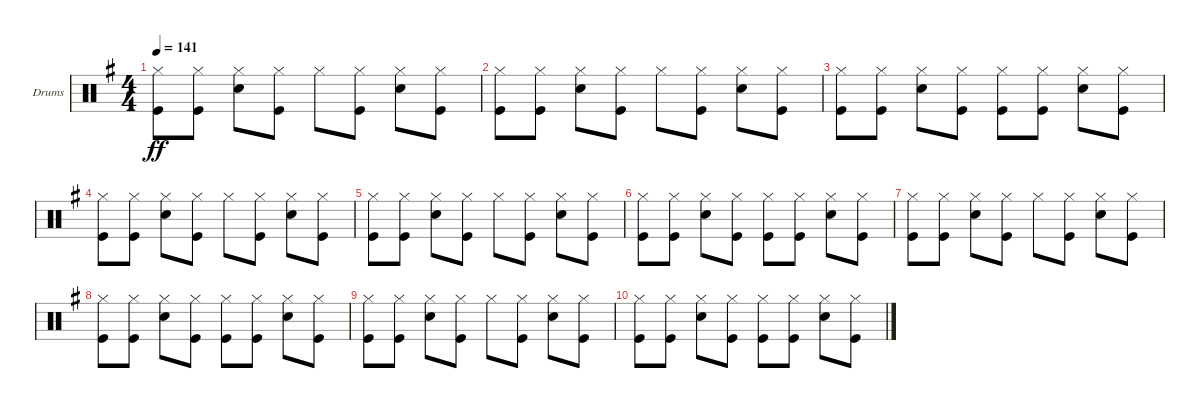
\defaultSystemsLayout 4
\bracketExtendMode groupsimilarinstruments
\firstSystemTrackNameOrientation horizontal
\otherSystemsTrackNameOrientation horizontal
\track ("Drumkit" "Drums") {instrument percussion}
\staff {score}
\articulation defaults
\ts (4 4)
\tempo 141
\clef neutral
\scale
0.333333
\ks g
("Kick (hit)" "Hi-Hat (closed)").8{dy ff} ("Kick (hit)" "Hi-Hat (closed)").8 ("Snare (hit) 2" "Hi-Hat (closed)").8 ("Hi-Hat (closed)" "Kick (hit)").8 "Hi-Hat (closed)".8 ("Kick (hit)" "Hi-Hat (closed)").8 ("Snare (hit) 2" "Hi-Hat (closed)").8 ("Kick (hit)" "Hi-Hat (closed)").8 |
\scale
0.333333 ("Kick (hit)" "Hi-Hat (closed)").8 ("Kick (hit)" "Hi-Hat (closed)").8 ("Snare (hit) 2" "Hi-Hat (closed)").8 ("Hi-Hat (closed)" "Kick (hit)").8 "Hi-Hat (closed)".8 ("Kick (hit)" "Hi-Hat (closed)").8 ("Snare (hit) 2" "Hi-Hat (closed)").8 ("Kick (hit)" "Hi-Hat (closed)").8 |
("Kick (hit)" "Hi-Hat (closed)").8 ("Kick (hit)" "Hi-Hat (closed)").8 ("Snare (hit) 2" "Hi-Hat (closed)").8 ("Kick (hit)" "Hi-Hat (closed)").8 ("Kick (hit)" "Hi-Hat (closed)").8 ("Kick (hit)" "Hi-Hat (closed)").8 ("Snare (hit) 2" "Hi-Hat (closed)").8 ("Kick (hit)" "Hi-Hat (closed)").8 |
("Kick (hit)" "Hi-Hat (closed)").8 ("Kick (hit)" "Hi-Hat (closed)").8 ("Snare (hit) 2" "Hi-Hat (closed)").8 ("Hi-Hat (closed)" "Kick (hit)").8 "Hi-Hat (closed)".8 ("Kick (hit)" "Hi-Hat (closed)").8 ("Snare (hit) 2" "Hi-Hat (closed)").8 ("Kick (hit)" "Hi-Hat (closed)").8 |
("Kick (hit)" "Hi-Hat (closed)").8 ("Kick (hit)" "Hi-Hat (closed)").8 ("Snare (hit) 2" "Hi-Hat (closed)").8 ("Hi-Hat (closed)" "Kick (hit)").8 "Hi-Hat (closed)".8 ("Kick (hit)" "Hi-Hat (closed)").8 ("Snare (hit) 2" "Hi-Hat (closed)").8 ("Kick (hit)" "Hi-Hat (closed)").8 |
("Kick (hit)" "Hi-Hat (closed)").8 ("Kick (hit)" "Hi-Hat (closed)").8 ("Snare (hit) 2" "Hi-Hat (closed)").8 ("Kick (hit)" "Hi-Hat (closed)").8 ("Kick (hit)" "Hi-Hat (closed)").8 ("Kick (hit)" "Hi-Hat (closed)").8 ("Snare (hit) 2" "Hi-Hat (closed)").8 ("Kick (hit)" "Hi-Hat (closed)").8 |
("Kick (hit)" "Hi-Hat (closed)").8 ("Kick (hit)" "Hi-Hat (closed)").8 ("Snare (hit) 2" "Hi-Hat (closed)").8 ("Hi-Hat (closed)" "Kick (hit)").8 "Hi-Hat (closed)".8 ("Kick (hit)" "Hi-Hat (closed)").8 ("Snare (hit) 2" "Hi-Hat (closed)").8 ("Kick (hit)" "Hi-Hat (closed)").8 |
("Kick (hit)" "Hi-Hat (closed)").8 ("Kick (hit)" "Hi-Hat (closed)").8 ("Snare (hit) 2" "Hi-Hat (closed)").8 ("Kick (hit)" "Hi-Hat (closed)").8 ("Kick (hit)" "Hi-Hat (closed)").8 ("Kick (hit)" "Hi-Hat (closed)").8 ("Snare (hit) 2" "Hi-Hat (closed)").8 ("Kick (hit)" "Hi-Hat (closed)").8 |
("Kick (hit)" "Hi-Hat (closed)").8 ("Kick (hit)" "Hi-Hat (closed)").8 ("Snare (hit) 2" "Hi-Hat (closed)").8 ("Hi-Hat (closed)" "Kick (hit)").8 "Hi-Hat (closed)".8 ("Kick (hit)" "Hi-Hat (closed)").8 ("Snare (hit) 2" "Hi-Hat (closed)").8 ("Kick (hit)" "Hi-Hat (closed)").8 |
("Kick (hit)" "Hi-Hat (closed)").8 ("Kick (hit)" "Hi-Hat (closed)").8 ("Snare (hit) 2" "Hi-Hat (closed)").8 ("Kick (hit)" "Hi-Hat (closed)").8 ("Kick (hit)" "Hi-Hat (closed)").8 ("Kick (hit)" "Hi-Hat (closed)").8 ("Snare (hit) 2" "Hi-Hat (closed)").8 ("Kick (hit)" "Hi-Hat (closed)").8
